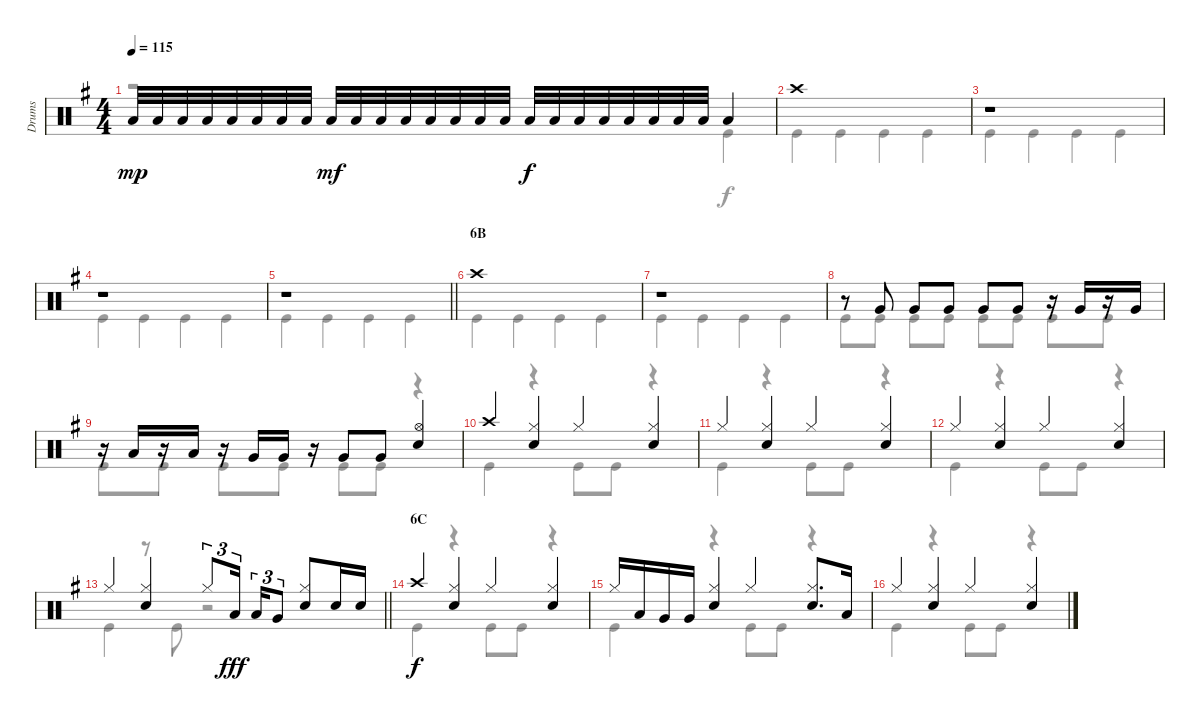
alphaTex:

\track ("Drums" "Drums") {instrument percussion}
\staff {score}
\articulation defaults
\voice
\ts (4 4)
\tempo 115
\clef neutral
\ks g "Low Tom (hit)".32{dy mp} "Low Tom (hit)".32 "Low Tom (hit)".32 "Low Tom (hit)".32 "Low Tom (hit)".32 "Low Tom (hit)".32 "Low Tom (hit)".32 "Low Tom (hit)".32 "Low Tom (hit)".32{dy mf} "Low Tom (hit)".32 "Low Tom (hit)".32 "Low Tom (hit)".32 "Low Tom (hit)".32 "Low Tom (hit)".32 "Low Tom (hit)".32 "Low Tom (hit)".32 "Low Tom (hit)".32{dy f} "Low Tom (hit)".32 "Low Tom (hit)".32 "Low Tom (hit)".32 "Low Tom (hit)".32 "Low Tom (hit)".32 "Low Tom (hit)".32 "Low Tom (hit)".32 "Low Floor Tom (hit)".4
|
"Crash high (hit)".1 |
r.1 |
r.1 |
\barLineRight lightlight
r.1 |
\section ("" "6B")
"Crash high (hit)".1 |
r.1 |
r.8 "Very Low Tom (hit)".8 "Very Low Tom (hit)".8 "Very Low Tom (hit)".8 "Very Low Tom (hit)".8 "Very Low Tom (hit)".8 r.16 "Very Low Tom (hit)".16 r.16 "Very Low Tom (hit)".16 |
r.16 "Low Tom (hit)".16 r.16 "Low Tom (hit)".16 r.16 "Very Low Tom (hit)".16 "Very Low Tom (hit)".16 r.16 "Very Low Tom (hit)".8 "Very Low Tom (hit)".8 ("Hi-Hat (open)" "Snare (hit) 2").4 |
"Crash high (hit)".4 ("Hi-Hat (closed)" "Snare (hit) 2").4 "Hi-Hat (closed)".4 ("Hi-Hat (closed)" "Snare (hit) 2").4 |
"Hi-Hat (closed)".4 ("Hi-Hat (closed)" "Snare (hit) 2").4 "Hi-Hat (closed)".4 ("Hi-Hat (closed)" "Snare (hit) 2").4 |
"Hi-Hat (closed)".4 ("Hi-Hat (closed)" "Snare (hit) 2").4 "Hi-Hat (closed)".4 ("Hi-Hat (closed)" "Snare (hit) 2").4 |
\barLineRight lightlight "Hi-Hat (closed)".4
("Hi-Hat (closed)" "Snare (hit) 2").4 "Hi-Hat (closed)".8{tu (3 2)} "Low Tom (hit)".16{tu (3 2) dy fff beam splitsecondary} "Low Tom (hit)".16{tu (3 2)} "Very Low Tom (hit)".8{tu (3 2)} ("Hi-Hat (closed)" "Snare (hit) 2").8 "Snare (hit) 2".16 "Snare (hit) 2".16 |
\section ("" "6C")
"Crash high (hit)".4{dy f} ("Hi-Hat (closed)" "Snare (hit) 2").4 "Hi-Hat (closed)".4 ("Hi-Hat (closed)" "Snare (hit) 2").4 |
"Hi-Hat (closed)".16 "Low Tom (hit)".16 "Very Low Tom (hit)".16 "Very Low Tom (hit)".16 ("Hi-Hat (closed)" "Snare (hit) 2").4 "Hi-Hat (closed)".4 ("Hi-Hat (closed)" "Snare (hit) 2").8{d} "Low Tom (hit)".16 |
"Hi-Hat (closed)".4 ("Hi-Hat (closed)" "Snare (hit) 2").4 "Hi-Hat (closed)".4 ("Hi-Hat (closed)" "Snare (hit) 2").4
\voice
\clef neutral
\ottava regular
\simile none
\ks g
r.2{d dy f} "Kick (hit)".4 |
"Kick (hit)".4 "Kick (hit)".4 "Kick (hit)".4 "Kick (hit)".4 |
"Kick (hit)".4 "Kick (hit)".4 "Kick (hit)".4 "Kick (hit)".4 |
"Kick (hit)".4 "Kick (hit)".4 "Kick (hit)".4 "Kick (hit)".4 |
\barLineRight lightlight "Kick (hit)".4 "Kick (hit)".4 "Kick (hit)".4 "Kick (hit)".4
|
"Kick (hit)".4 "Kick (hit)".4 "Kick (hit)".4 "Kick (hit)".4 |
"Kick (hit)".4 "Kick (hit)".4 "Kick (hit)".4 "Kick (hit)".4 |
"Kick (hit)".8 "Kick (hit)".8 "Kick (hit)".8 "Kick (hit)".8 "Kick (hit)".8 "Kick (hit)".8 "Kick (hit)".8 "Kick (hit)".8 |
"Kick (hit)".8 "Kick (hit)".8 "Kick (hit)".8 "Kick (hit)".8 "Kick (hit)".8 "Kick (hit)".8 r.4 |
"Kick (hit)".4 r.4 "Kick (hit)".8 "Kick (hit)".8 r.4 |
"Kick (hit)".4 r.4 "Kick (hit)".8 "Kick (hit)".8 r.4 |
"Kick (hit)".4 r.4 "Kick (hit)".8 "Kick (hit)".8 r.4 |
\barLineRight lightlight "Kick (hit)".4
r.8 "Kick (hit)".8 r.2 |
"Kick (hit)".4 r.4 "Kick (hit)".8 "Kick (hit)".8 r.4 |
"Kick (hit)".4 r.4 "Kick (hit)".8 "Kick (hit)".8 r.4 |
"Kick (hit)".4 r.4 "Kick (hit)".8 "Kick (hit)".8 r.4
